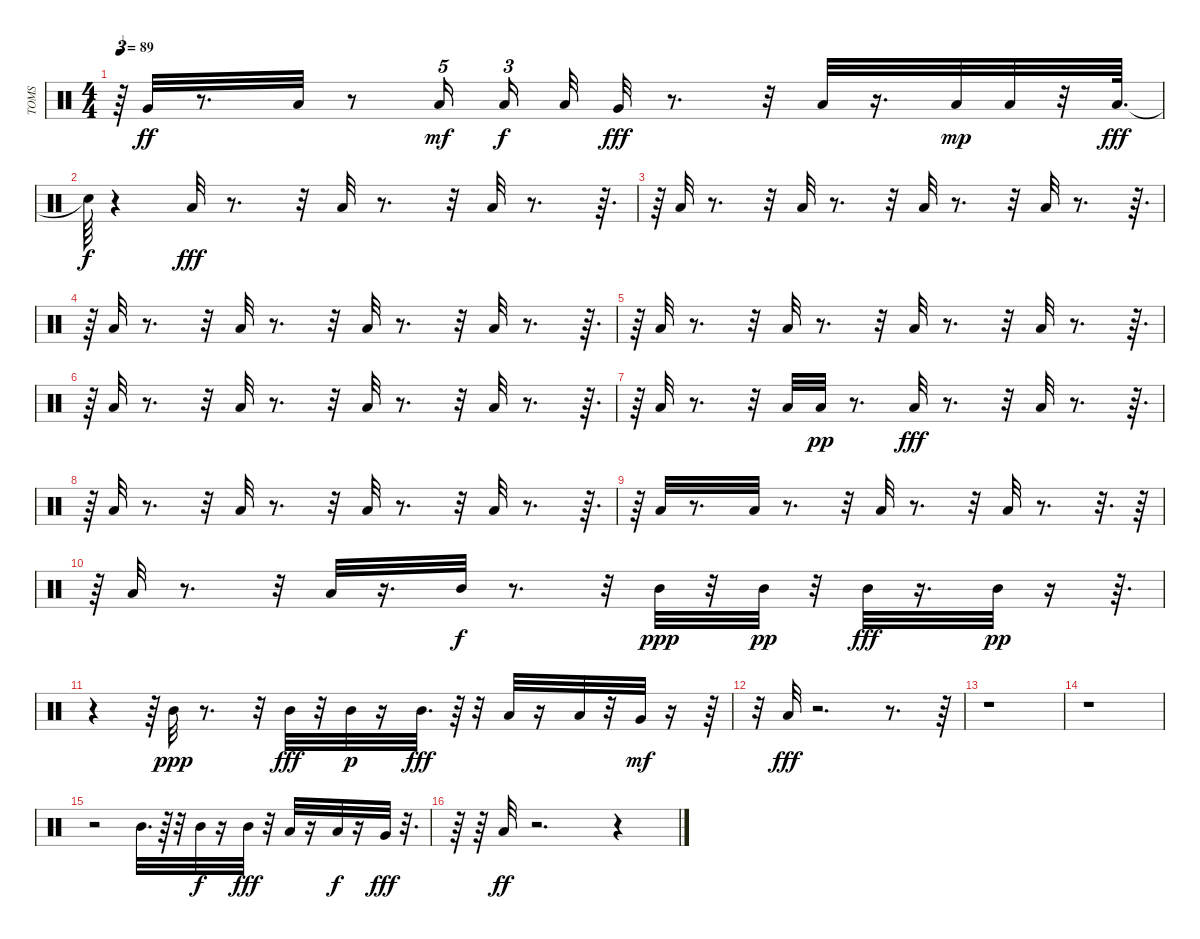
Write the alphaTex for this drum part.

\track ("TOMS" "TOMS") {instrument percussion}
\staff {score}
\articulation defaults
\ts (4 4)
\tempo 89
\clef neutral
\ks c
r.64{tu (3 2) dy mf} "Very Low Tom (hit)".32{dy ff} r.8{d} "Low Tom (hit)".32 r.8 "Low Tom (hit)".16{tu (5 4) dy mf} "Low Tom (hit)".16{tu (3 2) dy f beam splitsecondary} "Low Tom (hit)".32 "Very Low Tom (hit)".32{dy fff} r.8{d} r.32 "Low Tom (hit)".32 r.16{d} "Low Tom (hit)".32{dy mp} "Low Tom (hit)".32 r.32 "Low Floor Tom (hit)".64{d dy fff} |
"Snare (hit)"{t}.64{dy f} r.4 "Low Floor Tom (hit)".32{dy fff} r.8{d} r.32 "Low Floor Tom (hit)".32 r.8{d} r.32 "Low Floor Tom (hit)".32 r.8{d} r.64{d} |
r.64 "Low Floor Tom (hit)".32 r.8{d} r.32 "Low Floor Tom (hit)".32 r.8{d} r.32 "Low Floor Tom (hit)".32 r.8{d} r.32 "Low Floor Tom (hit)".32 r.8{d} r.64{d} |
r.64 "Low Floor Tom (hit)".32 r.8{d} r.32 "Low Floor Tom (hit)".32 r.8{d} r.32 "Low Floor Tom (hit)".32 r.8{d} r.32 "Low Floor Tom (hit)".32 r.8{d} r.64{d} |
r.64 "Low Floor Tom (hit)".32 r.8{d} r.32 "Low Floor Tom (hit)".32 r.8{d} r.32 "Low Floor Tom (hit)".32 r.8{d} r.32 "Low Floor Tom (hit)".32 r.8{d} r.64{d} |
r.64 "Low Floor Tom (hit)".32 r.8{d} r.32 "Low Floor Tom (hit)".32 r.8{d} r.32 "Low Floor Tom (hit)".32 r.8{d} r.32 "Low Floor Tom (hit)".32 r.8{d} r.64{d} |
r.64 "Low Floor Tom (hit)".32 r.8{d} r.32 "Low Floor Tom (hit)".32 "Low Floor Tom (hit)".32{dy pp} r.8{d} "Low Floor Tom (hit)".32{dy fff} r.8{d} r.32 "Low Floor Tom (hit)".32 r.8{d} r.64{d} |
r.64 "Low Floor Tom (hit)".32 r.8{d} r.32 "Low Floor Tom (hit)".32 r.8{d} r.32 "Low Floor Tom (hit)".32 r.8{d} r.32 "Low Floor Tom (hit)".32 r.8{d} r.64{d} |
r.64 "Low Floor Tom (hit)".32 r.8{d} "Low Floor Tom (hit)".32 r.8{d} r.32 "Low Floor Tom (hit)".32 r.8{d} r.32 "Low Floor Tom (hit)".32 r.8{d} r.32{d} r.64 |
r.64 "Low Floor Tom (hit)".32 r.8{d} r.32 "Low Floor Tom (hit)".32 r.16{d} "Mid Tom (hit)".32{dy f} r.8{d} r.32 "Mid Tom (hit)".32{dy ppp} r.32 "Mid Tom (hit)".32{dy pp} r.32 "Mid Tom (hit)".32{dy fff} r.16{d} "Mid Tom (hit)".32{dy pp} r.16 r.64{d} |
r.4 r.64 "Mid Tom (hit)".32{dy ppp} r.8{d} r.32 "Mid Tom (hit)".32{dy fff} r.32 "Mid Tom (hit)".32{dy p} r.16 "Mid Tom (hit)".32{d dy fff} r.64 r.32 "Low Tom (hit)".32 r.16 "Low Tom (hit)".32 r.32 "Very Low Tom (hit)".32{dy mf} r.16 r.64 |
r.32 "Low Floor Tom (hit)".32{dy fff} r.2{d} r.8{d} r.64 |
r.1 |
r.1 |
r.2 "Mid Tom (hit)".32{d} r.64 r.32 "Mid Tom (hit)".32{dy f} r.16 "Mid Tom (hit)".32{dy fff} r.32 "Low Tom (hit)".32 r.16 "Low Tom (hit)".32{dy f} r.16 "Very Low Tom (hit)".32{dy fff} r.32{d} |
r.64 r.64 "Low Floor Tom (hit)".32{dy ff} r.2{d} r.4{tu (5 4)}
